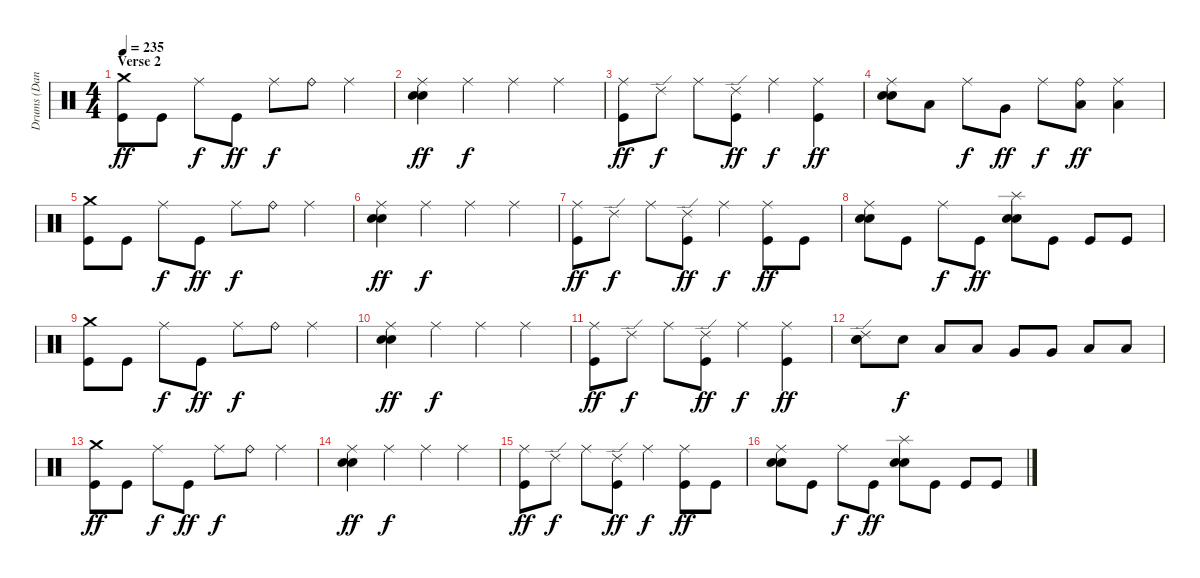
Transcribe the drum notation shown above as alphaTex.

\track ("Drums (Dan)" "Drums (Dan") {instrument percussion}
\staff {score}
\articulation defaults
\ts (4 4)
\section ("" "Verse 2")
\tempo 235
\clef neutral
\ks c
("Kick (hit)" "Crash medium (hit)").8{dy ff} "Kick (hit)".8 "Ride (middle)".8{dy f} "Kick (hit)".8{dy ff} "Ride (middle)".8{dy f} "Ride (bell)".8 "Ride (middle)".4 |
("Electric Snare (hit)" "Electric Snare (hit)" "Ride (middle)").4{dy ff} "Ride (middle)".4{dy f} "Ride (middle)".4 "Ride (middle)".4 |
("Kick (hit)" "Ride (middle)").8{dy ff} "Ride (edge) 2".8{dy f} "Ride (middle)".8 ("Kick (hit)" "Ride (edge) 2").8{dy ff} "Ride (middle)".4{dy f} ("Kick (hit)" "Ride (middle)").4{dy ff} |
("Electric Snare (hit)" "Electric Snare (hit)" "Ride (middle)").8 "Low Tom (hit)".8 "Ride (middle)".8{dy f} "Very Low Tom (hit)".8{dy ff} "Ride (middle)".8{dy f} ("Low Floor Tom (hit)" "Ride (bell)").8{dy ff} ("Low Floor Tom (hit)" "Ride (middle)").4 |
("Kick (hit)" "Crash medium (hit)").8 "Kick (hit)".8 "Ride (middle)".8{dy f} "Kick (hit)".8{dy ff} "Ride (middle)".8{dy f} "Ride (bell)".8 "Ride (middle)".4 |
("Electric Snare (hit)" "Electric Snare (hit)" "Ride (middle)").4{dy ff} "Ride (middle)".4{dy f} "Ride (middle)".4 "Ride (middle)".4 |
("Kick (hit)" "Ride (middle)").8{dy ff} "Ride (edge) 2".8{dy f} "Ride (middle)".8 ("Kick (hit)" "Ride (edge) 2").8{dy ff} "Ride (middle)".4{dy f} ("Kick (hit)" "Ride (middle)").8{dy ff} "Kick (hit)".8 |
("Electric Snare (hit)" "Electric Snare (hit)" "Ride (middle)").8 "Kick (hit)".8 "Ride (middle)".8{dy f} "Kick (hit)".8{dy ff} ("Electric Snare (hit)" "Electric Snare (hit)" "Splash (hit)").8 "Kick (hit)".8 "Kick (hit)".8 "Kick (hit)".8 |
("Kick (hit)" "Crash medium (hit)").8 "Kick (hit)".8 "Ride (middle)".8{dy f} "Kick (hit)".8{dy ff} "Ride (middle)".8{dy f} "Ride (bell)".8 "Ride (middle)".4 |
("Electric Snare (hit)" "Electric Snare (hit)" "Ride (middle)").4{dy ff} "Ride (middle)".4{dy f} "Ride (middle)".4 "Ride (middle)".4 |
("Kick (hit)" "Ride (middle)").8{dy ff} "Ride (edge) 2".8{dy f} "Ride (middle)".8 ("Kick (hit)" "Ride (edge) 2").8{dy ff} "Ride (middle)".4{dy f} ("Kick (hit)" "Ride (middle)").4{dy ff} |
("Electric Snare (hit)" "Electric Snare (hit)" "Ride (edge) 2").8 "Electric Snare (hit)".8{dy f} "Low Tom (hit)".8 "Low Tom (hit)".8 "Very Low Tom (hit)".8 "Very Low Tom (hit)".8 "Low Floor Tom (hit)".8 "Low Floor Tom (hit)".8 |
("Kick (hit)" "Crash medium (hit)").8{dy ff} "Kick (hit)".8 "Ride (middle)".8{dy f} "Kick (hit)".8{dy ff} "Ride (middle)".8{dy f} "Ride (bell)".8 "Ride (middle)".4 |
("Electric Snare (hit)" "Electric Snare (hit)" "Ride (middle)").4{dy ff} "Ride (middle)".4{dy f} "Ride (middle)".4 "Ride (middle)".4 |
("Kick (hit)" "Ride (middle)").8{dy ff} "Ride (edge) 2".8{dy f} "Ride (middle)".8 ("Kick (hit)" "Ride (edge) 2").8{dy ff} "Ride (middle)".4{dy f} ("Kick (hit)" "Ride (middle)").8{dy ff} "Kick (hit)".8 |
("Electric Snare (hit)" "Electric Snare (hit)" "Ride (middle)").8 "Kick (hit)".8 "Ride (middle)".8{dy f} "Kick (hit)".8{dy ff} ("Electric Snare (hit)" "Electric Snare (hit)" "Splash (hit)").8 "Kick (hit)".8 "Kick (hit)".8 "Kick (hit)".8
